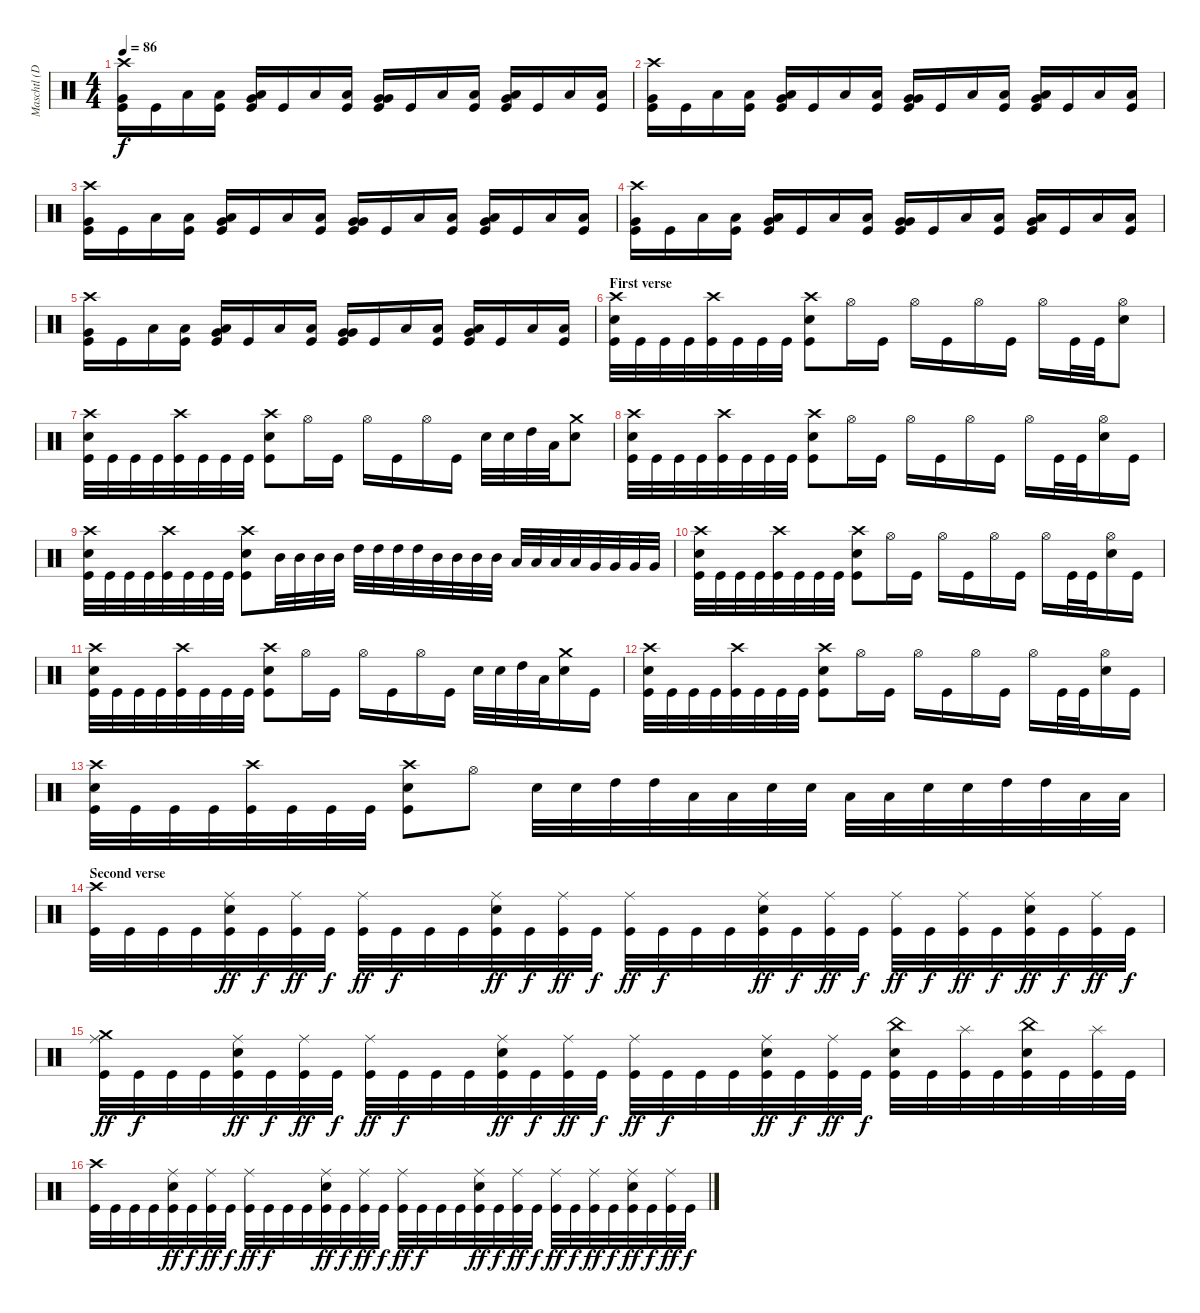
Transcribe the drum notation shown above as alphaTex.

\track ("Maschtl (Drums)" "Maschtl (D") {instrument percussion}
\staff {score}
\articulation defaults
\ts (4 4)
\tempo 86
\clef neutral
\ks c
("Crash high (hit)" "Very Low Tom (hit)" "Kick (hit)").16{dy f} "Kick (hit)".16 "Low Floor Tom (hit)".16 ("Low Floor Tom (hit)" "Kick (hit)").16 ("Low Tom (hit)" "Very Low Tom (hit)" "Kick (hit)").16{bd 120} "Kick (hit)".16 "Low Floor Tom (hit)".16 ("Low Floor Tom (hit)" "Kick (hit)").16 ("Very Low Tom (hit)" "Very Low Tom (hit)" "Kick (hit)").16{bd 120} "Kick (hit)".16 "Low Floor Tom (hit)".16 ("Low Floor Tom (hit)" "Kick (hit)").16 ("Low Tom (hit)" "Very Low Tom (hit)" "Kick (hit)").16{bd 120} "Kick (hit)".16 "Low Floor Tom (hit)".16 ("Low Floor Tom (hit)" "Kick (hit)").16 |
("Crash high (hit)" "Very Low Tom (hit)" "Kick (hit)").16 "Kick (hit)".16 "Low Floor Tom (hit)".16 ("Low Floor Tom (hit)" "Kick (hit)").16 ("Low Tom (hit)" "Very Low Tom (hit)" "Kick (hit)").16{bd 120} "Kick (hit)".16 "Low Floor Tom (hit)".16 ("Low Floor Tom (hit)" "Kick (hit)").16 ("Very Low Tom (hit)" "Very Low Tom (hit)" "Kick (hit)").16{bd 120} "Kick (hit)".16 "Low Floor Tom (hit)".16 ("Low Floor Tom (hit)" "Kick (hit)").16 ("Low Tom (hit)" "Very Low Tom (hit)" "Kick (hit)").16{bd 120} "Kick (hit)".16 "Low Floor Tom (hit)".16 ("Low Floor Tom (hit)" "Kick (hit)").16 |
("Crash high (hit)" "Very Low Tom (hit)" "Kick (hit)").16 "Kick (hit)".16 "Low Floor Tom (hit)".16 ("Low Floor Tom (hit)" "Kick (hit)").16 ("Low Tom (hit)" "Very Low Tom (hit)" "Kick (hit)").16{bd 120} "Kick (hit)".16 "Low Floor Tom (hit)".16 ("Low Floor Tom (hit)" "Kick (hit)").16 ("Very Low Tom (hit)" "Very Low Tom (hit)" "Kick (hit)").16{bd 120} "Kick (hit)".16 "Low Floor Tom (hit)".16 ("Low Floor Tom (hit)" "Kick (hit)").16 ("Low Tom (hit)" "Very Low Tom (hit)" "Kick (hit)").16{bd 120} "Kick (hit)".16 "Low Floor Tom (hit)".16 ("Low Floor Tom (hit)" "Kick (hit)").16 |
("Crash high (hit)" "Very Low Tom (hit)" "Kick (hit)").16 "Kick (hit)".16 "Low Floor Tom (hit)".16 ("Low Floor Tom (hit)" "Kick (hit)").16 ("Low Tom (hit)" "Very Low Tom (hit)" "Kick (hit)").16{bd 120} "Kick (hit)".16 "Low Floor Tom (hit)".16 ("Low Floor Tom (hit)" "Kick (hit)").16 ("Very Low Tom (hit)" "Very Low Tom (hit)" "Kick (hit)").16{bd 120} "Kick (hit)".16 "Low Floor Tom (hit)".16 ("Low Floor Tom (hit)" "Kick (hit)").16 ("Low Tom (hit)" "Very Low Tom (hit)" "Kick (hit)").16{bd 120} "Kick (hit)".16 "Low Floor Tom (hit)".16 ("Low Floor Tom (hit)" "Kick (hit)").16 |
("Crash high (hit)" "Very Low Tom (hit)" "Kick (hit)").16 "Kick (hit)".16 "Low Floor Tom (hit)".16 ("Low Floor Tom (hit)" "Kick (hit)").16 ("Low Tom (hit)" "Very Low Tom (hit)" "Kick (hit)").16{bd 120} "Kick (hit)".16 "Low Floor Tom (hit)".16 ("Low Floor Tom (hit)" "Kick (hit)").16 ("Very Low Tom (hit)" "Very Low Tom (hit)" "Kick (hit)").16{bd 120} "Kick (hit)".16 "Low Floor Tom (hit)".16 ("Low Floor Tom (hit)" "Kick (hit)").16 ("Low Tom (hit)" "Very Low Tom (hit)" "Kick (hit)").16{bd 120} "Kick (hit)".16 "Low Floor Tom (hit)".16 ("Low Floor Tom (hit)" "Kick (hit)").16 |
\section ("" "First verse")
("Crash high (hit)" "Electric Snare (hit)" "Kick (hit)").32 "Kick (hit)".32 "Kick (hit)".32 "Kick (hit)".32 ("Crash high (hit)" "Kick (hit)").32 "Kick (hit)".32 "Kick (hit)".32 "Kick (hit)".32 ("Crash high (hit)" "Electric Snare (hit)" "Kick (hit)").8 "Hi-Hat (open)".16 "Kick (hit)".16 "Hi-Hat (open)".16 "Kick (hit)".16 "Hi-Hat (open)".16 "Kick (hit)".16 "Hi-Hat (open)".16 "Kick (hit)".32 "Kick (hit)".32 ("Hi-Hat (open)" "Electric Snare (hit)").8 |
("Crash high (hit)" "Electric Snare (hit)" "Kick (hit)").32 "Kick (hit)".32 "Kick (hit)".32 "Kick (hit)".32 ("Crash high (hit)" "Kick (hit)").32 "Kick (hit)".32 "Kick (hit)".32 "Kick (hit)".32 ("Crash high (hit)" "Electric Snare (hit)" "Kick (hit)").8 "Hi-Hat (open)".16 "Kick (hit)".16 "Hi-Hat (open)".16 "Kick (hit)".16 "Hi-Hat (open)".16 "Kick (hit)".16 "Electric Snare (hit)".32 "Electric Snare (hit)".32 "High Tom (hit)".32 "Low Tom (hit)".32 ("Crash medium (hit)" "Electric Snare (hit)").8 |
("Crash high (hit)" "Electric Snare (hit)" "Kick (hit)").32 "Kick (hit)".32 "Kick (hit)".32 "Kick (hit)".32 ("Crash high (hit)" "Kick (hit)").32 "Kick (hit)".32 "Kick (hit)".32 "Kick (hit)".32 ("Crash high (hit)" "Electric Snare (hit)" "Kick (hit)").8 "Hi-Hat (open)".16 "Kick (hit)".16 "Hi-Hat (open)".16 "Kick (hit)".16 "Hi-Hat (open)".16 "Kick (hit)".16 "Hi-Hat (open)".16 "Kick (hit)".32 "Kick (hit)".32 ("Hi-Hat (open)" "Electric Snare (hit)").16 "Kick (hit)".16 |
("Crash high (hit)" "Electric Snare (hit)" "Kick (hit)").32 "Kick (hit)".32 "Kick (hit)".32 "Kick (hit)".32 ("Crash high (hit)" "Kick (hit)").32 "Kick (hit)".32 "Kick (hit)".32 "Kick (hit)".32 ("Crash high (hit)" "Electric Snare (hit)" "Kick (hit)").8 "Mid Tom (hit)".32 "Mid Tom (hit)".32 "Mid Tom (hit)".32 "Mid Tom (hit)".32 "High Tom (hit)".32 "High Tom (hit)".32 "High Tom (hit)".32 "High Tom (hit)".32 "Mid Tom (hit)".32 "Mid Tom (hit)".32 "Mid Tom (hit)".32 "Mid Tom (hit)".32 "Low Tom (hit)".32 "Low Tom (hit)".32 "Low Tom (hit)".32 "Low Tom (hit)".32 "Very Low Tom (hit)".32 "Very Low Tom (hit)".32 "Very Low Tom (hit)".32 "Very Low Tom (hit)".32 |
("Crash high (hit)" "Electric Snare (hit)" "Kick (hit)").32 "Kick (hit)".32 "Kick (hit)".32 "Kick (hit)".32 ("Crash high (hit)" "Kick (hit)").32 "Kick (hit)".32 "Kick (hit)".32 "Kick (hit)".32 ("Crash high (hit)" "Electric Snare (hit)" "Kick (hit)").8 "Hi-Hat (open)".16 "Kick (hit)".16 "Hi-Hat (open)".16 "Kick (hit)".16 "Hi-Hat (open)".16 "Kick (hit)".16 "Hi-Hat (open)".16 "Kick (hit)".32 "Kick (hit)".32 ("Hi-Hat (open)" "Electric Snare (hit)").16 "Kick (hit)".16 |
("Crash high (hit)" "Electric Snare (hit)" "Kick (hit)").32 "Kick (hit)".32 "Kick (hit)".32 "Kick (hit)".32 ("Crash high (hit)" "Kick (hit)").32 "Kick (hit)".32 "Kick (hit)".32 "Kick (hit)".32 ("Crash high (hit)" "Electric Snare (hit)" "Kick (hit)").8 "Hi-Hat (open)".16 "Kick (hit)".16 "Hi-Hat (open)".16 "Kick (hit)".16 "Hi-Hat (open)".16 "Kick (hit)".16 "Electric Snare (hit)".32 "Electric Snare (hit)".32 "High Tom (hit)".32 "Low Tom (hit)".32 ("Crash medium (hit)" "Electric Snare (hit)").16 "Kick (hit)".16 |
("Crash high (hit)" "Electric Snare (hit)" "Kick (hit)").32 "Kick (hit)".32 "Kick (hit)".32 "Kick (hit)".32 ("Crash high (hit)" "Kick (hit)").32 "Kick (hit)".32 "Kick (hit)".32 "Kick (hit)".32 ("Crash high (hit)" "Electric Snare (hit)" "Kick (hit)").8 "Hi-Hat (open)".16 "Kick (hit)".16 "Hi-Hat (open)".16 "Kick (hit)".16 "Hi-Hat (open)".16 "Kick (hit)".16 "Hi-Hat (open)".16 "Kick (hit)".32 "Kick (hit)".32 ("Hi-Hat (open)" "Electric Snare (hit)").16 "Kick (hit)".16 |
("Crash high (hit)" "Electric Snare (hit)" "Kick (hit)").32 "Kick (hit)".32 "Kick (hit)".32 "Kick (hit)".32 ("Crash high (hit)" "Kick (hit)").32 "Kick (hit)".32 "Kick (hit)".32 "Kick (hit)".32 ("Crash high (hit)" "Electric Snare (hit)" "Kick (hit)").8 "Hi-Hat (open)".8 "Electric Snare (hit)".32 "Electric Snare (hit)".32 "High Tom (hit)".32 "High Tom (hit)".32 "Low Tom (hit)".32 "Low Tom (hit)".32 "Electric Snare (hit)".32 "Electric Snare (hit)".32 "Low Tom (hit)".32 "Low Tom (hit)".32 "Electric Snare (hit)".32 "Electric Snare (hit)".32 "High Tom (hit)".32 "High Tom (hit)".32 "Low Tom (hit)".32 "Low Tom (hit)".32 |
\section ("" "Second verse")
("Crash high (hit)" "Kick (hit)").32 "Kick (hit)".32 "Kick (hit)".32 "Kick (hit)".32 ("Ride (middle)" "Electric Snare (hit)" "Kick (hit)").32{dy ff} "Kick (hit)".32{dy f} ("Ride (middle)" "Kick (hit)").32{dy ff} "Kick (hit)".32{dy f} ("Ride (middle)" "Kick (hit)").32{dy ff} "Kick (hit)".32{dy f} "Kick (hit)".32 "Kick (hit)".32 ("Ride (middle)" "Electric Snare (hit)" "Kick (hit)").32{dy ff} "Kick (hit)".32{dy f} ("Ride (middle)" "Kick (hit)").32{dy ff} "Kick (hit)".32{dy f} ("Ride (middle)" "Kick (hit)").32{dy ff} "Kick (hit)".32{dy f} "Kick (hit)".32 "Kick (hit)".32 ("Ride (middle)" "Electric Snare (hit)" "Kick (hit)").32{dy ff} "Kick (hit)".32{dy f} ("Ride (middle)" "Kick (hit)").32{dy ff} "Kick (hit)".32{dy f} ("Ride (middle)" "Kick (hit)").32{dy ff} "Kick (hit)".32{dy f} ("Ride (middle)" "Kick (hit)").32{dy ff} "Kick (hit)".32{dy f} ("Ride (middle)" "Electric Snare (hit)" "Kick (hit)").32{dy ff} "Kick (hit)".32{dy f} ("Ride (middle)" "Kick (hit)").32{dy ff} "Kick (hit)".32{dy f} |
("Crash medium (hit)" "Ride (middle)" "Kick (hit)").32{dy ff} "Kick (hit)".32{dy f} "Kick (hit)".32 "Kick (hit)".32 ("Ride (middle)" "Electric Snare (hit)" "Kick (hit)").32{dy ff} "Kick (hit)".32{dy f} ("Ride (middle)" "Kick (hit)").32{dy ff} "Kick (hit)".32{dy f} ("Ride (middle)" "Kick (hit)").32{dy ff} "Kick (hit)".32{dy f} "Kick (hit)".32 "Kick (hit)".32 ("Ride (middle)" "Electric Snare (hit)" "Kick (hit)").32{dy ff} "Kick (hit)".32{dy f} ("Ride (middle)" "Kick (hit)").32{dy ff} "Kick (hit)".32{dy f} ("Ride (middle)" "Kick (hit)").32{dy ff} "Kick (hit)".32{dy f} "Kick (hit)".32 "Kick (hit)".32 ("Ride (middle)" "Electric Snare (hit)" "Kick (hit)").32{dy ff} "Kick (hit)".32{dy f} ("Ride (middle)" "Kick (hit)").32{dy ff} "Kick (hit)".32{dy f} ("China (hit)" "Electric Snare (hit)" "Kick (hit)").32 "Kick (hit)".32 ("Splash (hit)" "Kick (hit)").32 "Kick (hit)".32 ("China (hit)" "Electric Snare (hit)" "Kick (hit)").32 "Kick (hit)".32 ("Splash (hit)" "Kick (hit)").32 "Kick (hit)".32 |
("Crash high (hit)" "Kick (hit)").32 "Kick (hit)".32 "Kick (hit)".32 "Kick (hit)".32 ("Ride (middle)" "Electric Snare (hit)" "Kick (hit)").32{dy ff} "Kick (hit)".32{dy f} ("Ride (middle)" "Kick (hit)").32{dy ff} "Kick (hit)".32{dy f} ("Ride (middle)" "Kick (hit)").32{dy ff} "Kick (hit)".32{dy f} "Kick (hit)".32 "Kick (hit)".32 ("Ride (middle)" "Electric Snare (hit)" "Kick (hit)").32{dy ff} "Kick (hit)".32{dy f} ("Ride (middle)" "Kick (hit)").32{dy ff} "Kick (hit)".32{dy f} ("Ride (middle)" "Kick (hit)").32{dy ff} "Kick (hit)".32{dy f} "Kick (hit)".32 "Kick (hit)".32 ("Ride (middle)" "Electric Snare (hit)" "Kick (hit)").32{dy ff} "Kick (hit)".32{dy f} ("Ride (middle)" "Kick (hit)").32{dy ff} "Kick (hit)".32{dy f} ("Ride (middle)" "Kick (hit)").32{dy ff} "Kick (hit)".32{dy f} ("Ride (middle)" "Kick (hit)").32{dy ff} "Kick (hit)".32{dy f} ("Ride (middle)" "Electric Snare (hit)" "Kick (hit)").32{dy ff} "Kick (hit)".32{dy f} ("Ride (middle)" "Kick (hit)").32{dy ff} "Kick (hit)".32{dy f}
